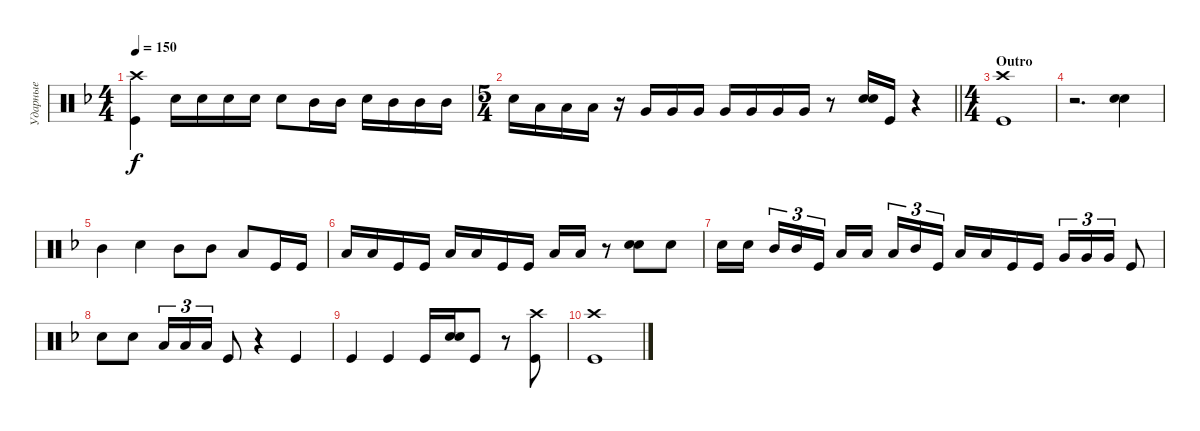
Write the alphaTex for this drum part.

\track ("Ударные" "Ударные") {instrument percussion}
\staff {score}
\articulation defaults
\ts (4 4)
\tempo 150
\clef neutral
\ks dminor
("Kick (hit)" "Crash high (hit)").4{dy f} "Snare (hit) 2".16 "Snare (hit) 2".16 "Snare (hit) 2".16 "Snare (hit) 2".16 "Snare (hit) 2".8 "Mid Tom (hit)".16 "Mid Tom (hit)".16 "Snare (hit) 2".16 "Mid Tom (hit)".16 "Mid Tom (hit)".16 "Mid Tom (hit)".16 |
\ts (5 4)
\barLineRight lightlight "Snare (hit) 2".16 "Low Tom (hit)".16 "Low Tom (hit)".16 "Low Tom (hit)".16
r.16 "Very Low Tom (hit)".16 "Very Low Tom (hit)".16 "Very Low Tom (hit)".16 "Very Low Tom (hit)".16 "Very Low Tom (hit)".16 "Very Low Tom (hit)".16 "Very Low Tom (hit)".16 r.8 ("Snare (hit) 2" "Snare (hit) 2").16{bd 480} "Kick (hit)".16 r.4 |
\ts (4 4)
\section ("" "Outro")
("Kick (hit)" "Crash high (hit)").1 |
r.2{d} ("Snare (hit) 2" "Snare (hit) 2").4{bd 480} |
"Mid Tom (hit)".4 "Snare (hit) 2".4 "Mid Tom (hit)".8 "Mid Tom (hit)".8 "Low Tom (hit)".8 "Kick (hit)".16 "Kick (hit)".16 |
"Low Tom (hit)".16 "Low Tom (hit)".16 "Kick (hit)".16 "Kick (hit)".16 "Low Tom (hit)".16 "Low Tom (hit)".16 "Kick (hit)".16 "Kick (hit)".16 "Low Tom (hit)".16 "Low Tom (hit)".16 r.8 ("Snare (hit) 2" "Snare (hit) 2").8{bd 480} "Snare (hit) 2".8 |
"Snare (hit) 2".16 "Snare (hit) 2".16{beam splitsecondary} "Mid Tom (hit)".16{tu (3 2)} "Mid Tom (hit)".16{tu (3 2)} "Kick (hit)".16{tu (3 2)} "Low Tom (hit)".16 "Low Tom (hit)".16{beam splitsecondary} "Low Tom (hit)".16{tu (3 2)} "Mid Tom (hit)".16{tu (3 2)} "Kick (hit)".16{tu (3 2)} "Low Tom (hit)".16 "Low Tom (hit)".16 "Kick (hit)".16 "Kick (hit)".16 "Very Low Tom (hit)".16{tu (3 2)} "Very Low Tom (hit)".16{tu (3 2)} "Very Low Tom (hit)".16{tu (3 2)} "Kick (hit)".8 |
"Snare (hit) 2".8 "Snare (hit) 2".8 "Low Tom (hit)".16{tu (3 2)} "Low Tom (hit)".16{tu (3 2)} "Low Tom (hit)".16{tu (3 2)} "Kick (hit)".8 r.4 "Kick (hit)".4 |
"Kick (hit)".4 "Kick (hit)".4 "Kick (hit)".16 ("Snare (hit) 2" "Snare (hit) 2").16{bd 480} "Kick (hit)".8 r.8 ("Kick (hit)" "Crash high (hit)").8 |
("Kick (hit)" "Crash high (hit)").1
